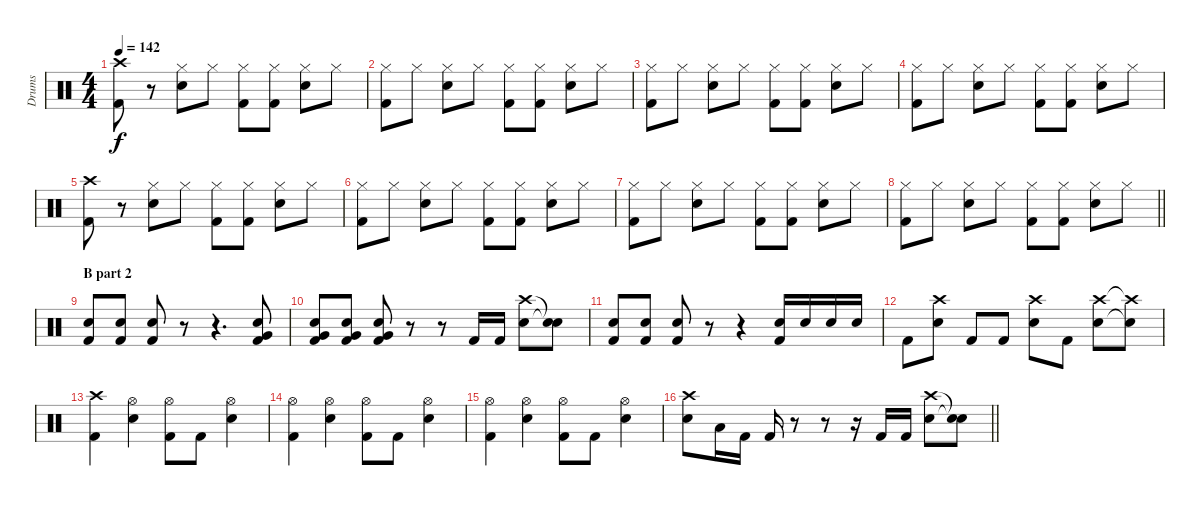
\track ("Drums" "Drums") {instrument percussion}
\staff {score}
\articulation defaults
\ts (4 4)
\tempo 142
\clef neutral
\ks c
("Crash high (hit)" "Kick (hit) 2").8{dy f} r.8 ("Hi-Hat (closed)" "Snare (hit) 2").8 "Hi-Hat (closed)".8 ("Hi-Hat (closed)" "Kick (hit) 2").8 ("Hi-Hat (closed)" "Kick (hit) 2").8 ("Hi-Hat (closed)" "Snare (hit) 2").8 "Hi-Hat (closed)".8 |
("Hi-Hat (closed)" "Kick (hit) 2").8 "Hi-Hat (closed)".8 ("Hi-Hat (closed)" "Snare (hit) 2").8 "Hi-Hat (closed)".8 ("Hi-Hat (closed)" "Kick (hit) 2").8 ("Hi-Hat (closed)" "Kick (hit) 2").8 ("Hi-Hat (closed)" "Snare (hit) 2").8 "Hi-Hat (closed)".8 |
("Hi-Hat (closed)" "Kick (hit) 2").8 "Hi-Hat (closed)".8 ("Hi-Hat (closed)" "Snare (hit) 2").8 "Hi-Hat (closed)".8 ("Hi-Hat (closed)" "Kick (hit) 2").8 ("Hi-Hat (closed)" "Kick (hit) 2").8 ("Hi-Hat (closed)" "Snare (hit) 2").8 "Hi-Hat (closed)".8 |
("Hi-Hat (closed)" "Kick (hit) 2").8 "Hi-Hat (closed)".8 ("Hi-Hat (closed)" "Snare (hit) 2").8 "Hi-Hat (closed)".8 ("Hi-Hat (closed)" "Kick (hit) 2").8 ("Hi-Hat (closed)" "Kick (hit) 2").8 ("Hi-Hat (closed)" "Snare (hit) 2").8 "Hi-Hat (closed)".8 |
("Crash high (hit)" "Kick (hit) 2").8 r.8 ("Hi-Hat (closed)" "Snare (hit) 2").8 "Hi-Hat (closed)".8 ("Hi-Hat (closed)" "Kick (hit) 2").8 ("Hi-Hat (closed)" "Kick (hit) 2").8 ("Hi-Hat (closed)" "Snare (hit) 2").8 "Hi-Hat (closed)".8 |
("Hi-Hat (closed)" "Kick (hit) 2").8 "Hi-Hat (closed)".8 ("Hi-Hat (closed)" "Snare (hit) 2").8 "Hi-Hat (closed)".8 ("Hi-Hat (closed)" "Kick (hit) 2").8 ("Hi-Hat (closed)" "Kick (hit) 2").8 ("Hi-Hat (closed)" "Snare (hit) 2").8 "Hi-Hat (closed)".8 |
("Hi-Hat (closed)" "Kick (hit) 2").8 "Hi-Hat (closed)".8 ("Hi-Hat (closed)" "Snare (hit) 2").8 "Hi-Hat (closed)".8 ("Hi-Hat (closed)" "Kick (hit) 2").8 ("Hi-Hat (closed)" "Kick (hit) 2").8 ("Hi-Hat (closed)" "Snare (hit) 2").8 "Hi-Hat (closed)".8 |
\barLineRight lightlight
("Hi-Hat (closed)" "Kick (hit) 2").8 "Hi-Hat (closed)".8 ("Hi-Hat (closed)" "Snare (hit) 2").8 "Hi-Hat (closed)".8 ("Hi-Hat (closed)" "Kick (hit) 2").8 ("Hi-Hat (closed)" "Kick (hit) 2").8 ("Hi-Hat (closed)" "Snare (hit) 2").8 "Hi-Hat (closed)".8 |
\section ("" "B part 2")
("Snare (hit) 2" "Kick (hit) 2").8 ("Snare (hit) 2" "Kick (hit) 2").8 ("Snare (hit) 2" "Kick (hit) 2").8 r.8 r.4{d} ("Very Low Tom (hit)" "Snare (hit) 2" "Kick (hit) 2").8 |
("Very Low Tom (hit)" "Snare (hit) 2" "Kick (hit) 2").8 ("Very Low Tom (hit)" "Snare (hit) 2" "Kick (hit) 2").8 ("Very Low Tom (hit)" "Snare (hit) 2" "Kick (hit) 2").8 r.8 r.8 "Kick (hit) 2".16 "Kick (hit) 2".16 ("Crash high (hit)" "Snare (hit) 2").8 ("Snare (hit)"{t} "Snare (hit)"{t}).8 |
("Snare (hit) 2" "Kick (hit) 2").8 ("Snare (hit) 2" "Kick (hit) 2").8 ("Snare (hit) 2" "Kick (hit) 2").8 r.8 r.4 ("Snare (hit) 2" "Kick (hit) 2").16 "Snare (hit) 2".16 "Snare (hit) 2".16 "Snare (hit) 2".16 |
"Kick (hit) 2".8 ("Crash high (hit)" "Snare (hit) 2").8 "Kick (hit) 2".8 "Kick (hit) 2".8 ("Crash high (hit)" "Snare (hit) 2").8 "Kick (hit) 2".8 ("Crash high (hit)" "Snare (hit) 2").8 ("Crash high (hit)"{t} "Snare (hit)"{t}).8 |
("Crash high (hit)" "Kick (hit) 2").4 ("Hi-Hat (open)" "Snare (hit) 2").4 ("Hi-Hat (open)" "Kick (hit) 2").8 "Kick (hit) 2".8 ("Hi-Hat (open)" "Snare (hit) 2").4 |
("Hi-Hat (open)" "Kick (hit) 2").4 ("Hi-Hat (open)" "Snare (hit) 2").4 ("Hi-Hat (open)" "Kick (hit) 2").8 "Kick (hit) 2".8 ("Hi-Hat (open)" "Snare (hit) 2").4 |
("Hi-Hat (open)" "Kick (hit) 2").4 ("Hi-Hat (open)" "Snare (hit) 2").4 ("Hi-Hat (open)" "Kick (hit) 2").8 "Kick (hit) 2".8 ("Hi-Hat (open)" "Snare (hit) 2").4 |
\barLineRight lightlight
("Crash high (hit)" "Snare (hit) 2").8 "Low Tom (hit)".16 "Kick (hit) 2".16 "Kick (hit) 2".16 r.8 r.8 r.16 "Kick (hit) 2".16 "Kick (hit) 2".16 ("Crash high (hit)" "Snare (hit) 2").8 ("Snare (hit)"{t} "Snare (hit)"{t}).8
